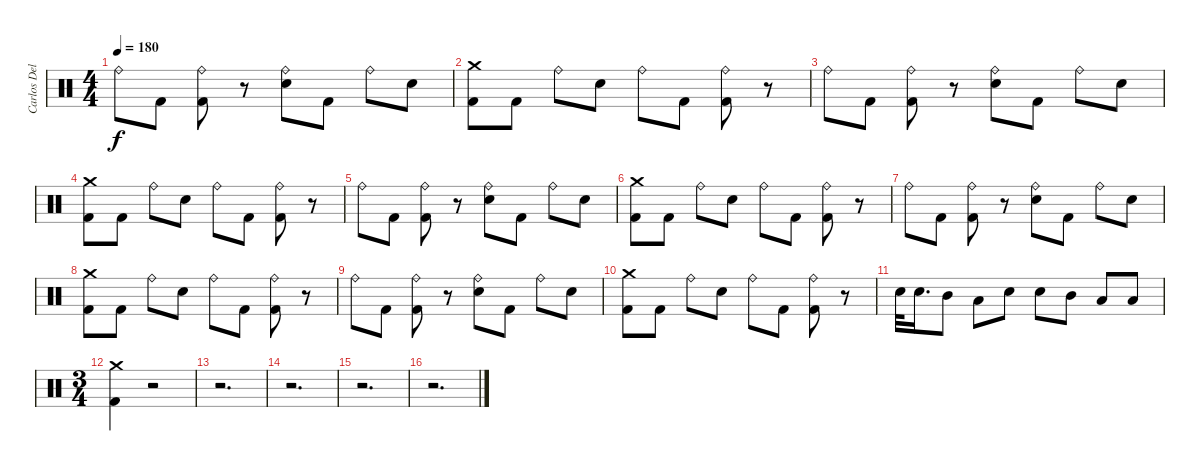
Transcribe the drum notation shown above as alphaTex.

\track ("Carlos Delgado" "Carlos Del") {instrument percussion}
\staff {score}
\articulation defaults
\ts (4 4)
\tempo 180
\clef neutral
\ks c "Ride (bell)".8{dy f} "Kick (hit) 2".8
("Ride (bell)" "Kick (hit) 2").8 r.8 ("Ride (bell)" "Electric Snare (hit)").8 "Kick (hit) 2".8 "Ride (bell)".8 "Electric Snare (hit)".8 |
("Kick (hit) 2" "Crash medium (hit)").8 "Kick (hit) 2".8 "Ride (bell)".8 "Electric Snare (hit)".8 "Ride (bell)".8 "Kick (hit) 2".8 ("Kick (hit) 2" "Ride (bell)").8 r.8 |
"Ride (bell)".8 "Kick (hit) 2".8 ("Ride (bell)" "Kick (hit) 2").8 r.8 ("Ride (bell)" "Electric Snare (hit)").8 "Kick (hit) 2".8 "Ride (bell)".8 "Electric Snare (hit)".8 |
("Kick (hit) 2" "Crash medium (hit)").8 "Kick (hit) 2".8 "Ride (bell)".8 "Electric Snare (hit)".8 "Ride (bell)".8 "Kick (hit) 2".8 ("Kick (hit) 2" "Ride (bell)").8 r.8 |
"Ride (bell)".8 "Kick (hit) 2".8 ("Ride (bell)" "Kick (hit) 2").8 r.8 ("Ride (bell)" "Electric Snare (hit)").8 "Kick (hit) 2".8 "Ride (bell)".8 "Electric Snare (hit)".8 |
("Kick (hit) 2" "Crash medium (hit)").8 "Kick (hit) 2".8 "Ride (bell)".8 "Electric Snare (hit)".8 "Ride (bell)".8 "Kick (hit) 2".8 ("Kick (hit) 2" "Ride (bell)").8 r.8 |
"Ride (bell)".8 "Kick (hit) 2".8 ("Ride (bell)" "Kick (hit) 2").8 r.8 ("Ride (bell)" "Electric Snare (hit)").8 "Kick (hit) 2".8 "Ride (bell)".8 "Electric Snare (hit)".8 |
("Kick (hit) 2" "Crash medium (hit)").8 "Kick (hit) 2".8 "Ride (bell)".8 "Electric Snare (hit)".8 "Ride (bell)".8 "Kick (hit) 2".8 ("Kick (hit) 2" "Ride (bell)").8 r.8 |
"Ride (bell)".8 "Kick (hit) 2".8 ("Ride (bell)" "Kick (hit) 2").8 r.8 ("Ride (bell)" "Electric Snare (hit)").8 "Kick (hit) 2".8 "Ride (bell)".8 "Electric Snare (hit)".8 |
("Kick (hit) 2" "Crash medium (hit)").8 "Kick (hit) 2".8 "Ride (bell)".8 "Electric Snare (hit)".8 "Ride (bell)".8 "Kick (hit) 2".8 ("Kick (hit) 2" "Ride (bell)").8 r.8 |
"Electric Snare (hit)".32 "Electric Snare (hit)".16{d} "Mid Tom (hit)".8 "Low Tom (hit)".8 "Electric Snare (hit)".8 "Electric Snare (hit)".8 "Mid Tom (hit)".8 "Low Tom (hit)".8 "Low Floor Tom (hit)".8 |
\ts (3 4)
("Crash medium (hit)" "Kick (hit) 2").4 r.2 |
r.2{d} |
r.2{d} |
r.2{d} |
r.2{d}
